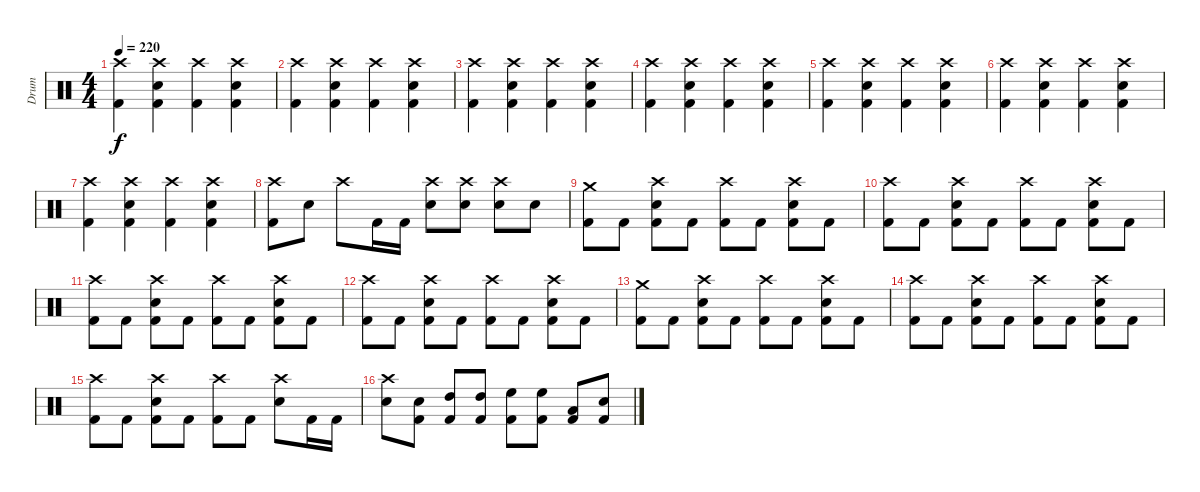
\track ("Drum" "Drum") {instrument percussion}
\staff {score}
\articulation defaults
\ts (4 4)
\tempo 220
\clef neutral
\ks c
("Crash high (hit)" "Kick (hit) 2").4{dy f} ("Crash high (hit)" "Electric Snare (hit)" "Kick (hit) 2").4 ("Crash high (hit)" "Kick (hit) 2").4 ("Crash high (hit)" "Electric Snare (hit)" "Kick (hit) 2").4 |
("Crash high (hit)" "Kick (hit) 2").4 ("Crash high (hit)" "Electric Snare (hit)" "Kick (hit) 2").4 ("Crash high (hit)" "Kick (hit) 2").4 ("Crash high (hit)" "Electric Snare (hit)" "Kick (hit) 2").4 |
("Crash high (hit)" "Kick (hit) 2").4 ("Crash high (hit)" "Electric Snare (hit)" "Kick (hit) 2").4 ("Crash high (hit)" "Kick (hit) 2").4 ("Crash high (hit)" "Electric Snare (hit)" "Kick (hit) 2").4 |
("Crash high (hit)" "Kick (hit) 2").4 ("Crash high (hit)" "Electric Snare (hit)" "Kick (hit) 2").4 ("Crash high (hit)" "Kick (hit) 2").4 ("Crash high (hit)" "Electric Snare (hit)" "Kick (hit) 2").4 |
("Crash high (hit)" "Kick (hit) 2").4 ("Crash high (hit)" "Electric Snare (hit)" "Kick (hit) 2").4 ("Crash high (hit)" "Kick (hit) 2").4 ("Crash high (hit)" "Electric Snare (hit)" "Kick (hit) 2").4 |
("Crash high (hit)" "Kick (hit) 2").4 ("Crash high (hit)" "Electric Snare (hit)" "Kick (hit) 2").4 ("Crash high (hit)" "Kick (hit) 2").4 ("Crash high (hit)" "Electric Snare (hit)" "Kick (hit) 2").4 |
("Crash high (hit)" "Kick (hit) 2").4 ("Crash high (hit)" "Electric Snare (hit)" "Kick (hit) 2").4 ("Crash high (hit)" "Kick (hit) 2").4 ("Crash high (hit)" "Electric Snare (hit)" "Kick (hit) 2").4 |
("Crash high (hit)" "Kick (hit) 2").8 "Electric Snare (hit)".8 "Crash high (hit)".8 "Kick (hit) 2".16 "Kick (hit) 2".16 ("Crash high (hit)" "Electric Snare (hit)").8 ("Crash high (hit)" "Electric Snare (hit)").8 ("Crash high (hit)" "Electric Snare (hit)").8 "Electric Snare (hit)".8 |
("Crash medium (hit)" "Kick (hit) 2").8 "Kick (hit) 2".8 ("Crash high (hit)" "Electric Snare (hit)" "Kick (hit) 2").8 "Kick (hit) 2".8 ("Crash high (hit)" "Kick (hit) 2").8 "Kick (hit) 2".8 ("Crash high (hit)" "Electric Snare (hit)" "Kick (hit) 2").8 "Kick (hit) 2".8 |
("Crash high (hit)" "Kick (hit) 2").8 "Kick (hit) 2".8 ("Crash high (hit)" "Electric Snare (hit)" "Kick (hit) 2").8 "Kick (hit) 2".8 ("Crash high (hit)" "Kick (hit) 2").8 "Kick (hit) 2".8 ("Crash high (hit)" "Electric Snare (hit)" "Kick (hit) 2").8 "Kick (hit) 2".8 |
("Crash high (hit)" "Kick (hit) 2").8 "Kick (hit) 2".8 ("Crash high (hit)" "Electric Snare (hit)" "Kick (hit) 2").8 "Kick (hit) 2".8 ("Crash high (hit)" "Kick (hit) 2").8 "Kick (hit) 2".8 ("Crash high (hit)" "Electric Snare (hit)" "Kick (hit) 2").8 "Kick (hit) 2".8 |
("Crash high (hit)" "Kick (hit) 2").8 "Kick (hit) 2".8 ("Crash high (hit)" "Electric Snare (hit)" "Kick (hit) 2").8 "Kick (hit) 2".8 ("Crash high (hit)" "Kick (hit) 2").8 "Kick (hit) 2".8 ("Crash high (hit)" "Electric Snare (hit)" "Kick (hit) 2").8 "Kick (hit) 2".8 |
("Crash medium (hit)" "Kick (hit) 2").8 "Kick (hit) 2".8 ("Crash high (hit)" "Electric Snare (hit)" "Kick (hit) 2").8 "Kick (hit) 2".8 ("Crash high (hit)" "Kick (hit) 2").8 "Kick (hit) 2".8 ("Crash high (hit)" "Electric Snare (hit)" "Kick (hit) 2").8 "Kick (hit) 2".8 |
("Crash high (hit)" "Kick (hit) 2").8 "Kick (hit) 2".8 ("Crash high (hit)" "Electric Snare (hit)" "Kick (hit) 2").8 "Kick (hit) 2".8 ("Crash high (hit)" "Kick (hit) 2").8 "Kick (hit) 2".8 ("Crash high (hit)" "Electric Snare (hit)" "Kick (hit) 2").8 "Kick (hit) 2".8 |
("Crash high (hit)" "Kick (hit) 2").8 "Kick (hit) 2".8 ("Crash high (hit)" "Electric Snare (hit)" "Kick (hit) 2").8 "Kick (hit) 2".8 ("Crash high (hit)" "Kick (hit) 2").8 "Kick (hit) 2".8 ("Crash high (hit)" "Electric Snare (hit)").8 "Kick (hit) 2".16 "Kick (hit) 2".16 |
("Crash high (hit)" "Electric Snare (hit)").8 ("Electric Snare (hit)" "Kick (hit) 2").8 ("High Tom (hit)" "Kick (hit) 2").8 ("High Tom (hit)" "Kick (hit) 2").8 ("High Floor Tom (hit)" "Kick (hit) 2").8 ("High Floor Tom (hit)" "Kick (hit) 2").8 ("Low Floor Tom (hit)" "Kick (hit) 2").8 ("Electric Snare (hit)" "Kick (hit) 2").8
